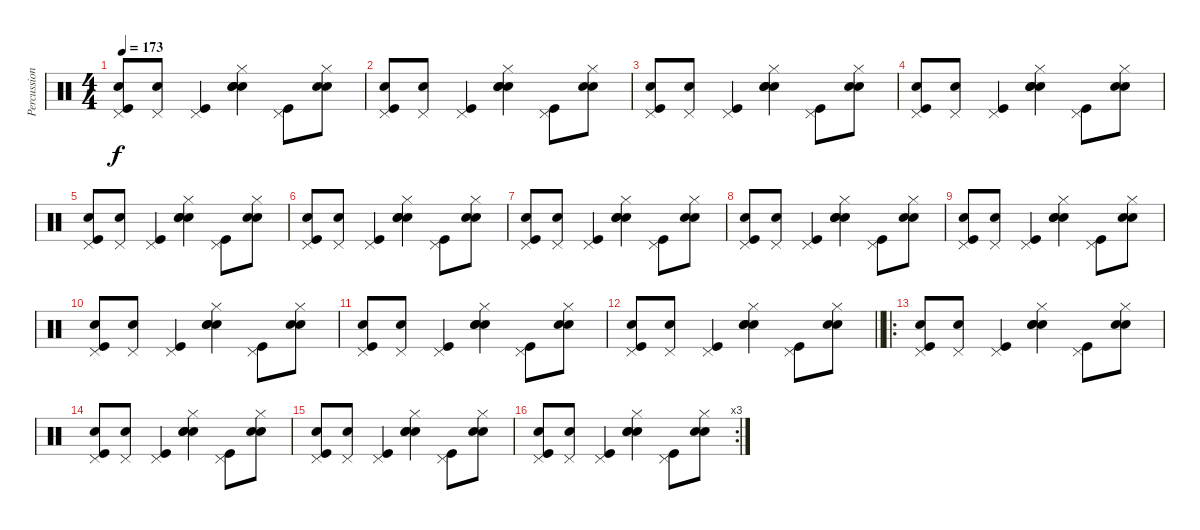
\track ("Percussion" "Percussion") {instrument percussion}
\staff {score}
\articulation defaults
\ts (4 4)
\tempo 173
\clef neutral
\ks c
("Hand Clap (hit)" "Pedal Hi-Hat (hit)" "Kick (hit)").8{dy f} ("Pedal Hi-Hat (hit)" "Electric Snare (hit)").8 ("Pedal Hi-Hat (hit)" "Kick (hit)").4 ("Hand Clap (hit)" "Hand Clap (hit)" "Hi-Hat (closed)" "Electric Snare (hit)").4 ("Pedal Hi-Hat (hit)" "Kick (hit)").8 ("Hand Clap (hit)" "Hi-Hat (closed)" "Electric Snare (hit)").8 |
("Hand Clap (hit)" "Pedal Hi-Hat (hit)" "Kick (hit)").8 ("Pedal Hi-Hat (hit)" "Electric Snare (hit)").8 ("Pedal Hi-Hat (hit)" "Kick (hit)").4 ("Hand Clap (hit)" "Hand Clap (hit)" "Hi-Hat (closed)" "Electric Snare (hit)").4 ("Pedal Hi-Hat (hit)" "Kick (hit)").8 ("Hand Clap (hit)" "Hi-Hat (closed)" "Electric Snare (hit)").8 |
("Hand Clap (hit)" "Pedal Hi-Hat (hit)" "Kick (hit)").8 ("Pedal Hi-Hat (hit)" "Electric Snare (hit)").8 ("Pedal Hi-Hat (hit)" "Kick (hit)").4 ("Hand Clap (hit)" "Hand Clap (hit)" "Hi-Hat (closed)" "Electric Snare (hit)").4 ("Pedal Hi-Hat (hit)" "Kick (hit)").8 ("Hand Clap (hit)" "Hi-Hat (closed)" "Electric Snare (hit)").8 |
("Hand Clap (hit)" "Pedal Hi-Hat (hit)" "Kick (hit)").8 ("Pedal Hi-Hat (hit)" "Electric Snare (hit)").8 ("Pedal Hi-Hat (hit)" "Kick (hit)").4 ("Hand Clap (hit)" "Hand Clap (hit)" "Hi-Hat (closed)" "Electric Snare (hit)").4 ("Pedal Hi-Hat (hit)" "Kick (hit)").8 ("Hand Clap (hit)" "Hi-Hat (closed)" "Electric Snare (hit)").8 |
("Hand Clap (hit)" "Pedal Hi-Hat (hit)" "Kick (hit)").8 ("Pedal Hi-Hat (hit)" "Electric Snare (hit)").8 ("Pedal Hi-Hat (hit)" "Kick (hit)").4 ("Hand Clap (hit)" "Hand Clap (hit)" "Hi-Hat (closed)" "Electric Snare (hit)").4 ("Pedal Hi-Hat (hit)" "Kick (hit)").8 ("Hand Clap (hit)" "Hi-Hat (closed)" "Electric Snare (hit)").8 |
("Hand Clap (hit)" "Pedal Hi-Hat (hit)" "Kick (hit)").8 ("Pedal Hi-Hat (hit)" "Electric Snare (hit)").8 ("Pedal Hi-Hat (hit)" "Kick (hit)").4 ("Hand Clap (hit)" "Hand Clap (hit)" "Hi-Hat (closed)" "Electric Snare (hit)").4 ("Pedal Hi-Hat (hit)" "Kick (hit)").8 ("Hand Clap (hit)" "Hi-Hat (closed)" "Electric Snare (hit)").8 |
("Hand Clap (hit)" "Pedal Hi-Hat (hit)" "Kick (hit)").8 ("Pedal Hi-Hat (hit)" "Electric Snare (hit)").8 ("Pedal Hi-Hat (hit)" "Kick (hit)").4 ("Hand Clap (hit)" "Hand Clap (hit)" "Hi-Hat (closed)" "Electric Snare (hit)").4 ("Pedal Hi-Hat (hit)" "Kick (hit)").8 ("Hand Clap (hit)" "Hi-Hat (closed)" "Electric Snare (hit)").8 |
("Hand Clap (hit)" "Pedal Hi-Hat (hit)" "Kick (hit)").8 ("Pedal Hi-Hat (hit)" "Electric Snare (hit)").8 ("Pedal Hi-Hat (hit)" "Kick (hit)").4 ("Hand Clap (hit)" "Hand Clap (hit)" "Hi-Hat (closed)" "Electric Snare (hit)").4 ("Pedal Hi-Hat (hit)" "Kick (hit)").8 ("Hand Clap (hit)" "Hi-Hat (closed)" "Electric Snare (hit)").8 |
("Hand Clap (hit)" "Pedal Hi-Hat (hit)" "Kick (hit)").8 ("Pedal Hi-Hat (hit)" "Electric Snare (hit)").8 ("Pedal Hi-Hat (hit)" "Kick (hit)").4 ("Hand Clap (hit)" "Hand Clap (hit)" "Hi-Hat (closed)" "Electric Snare (hit)").4 ("Pedal Hi-Hat (hit)" "Kick (hit)").8 ("Hand Clap (hit)" "Hi-Hat (closed)" "Electric Snare (hit)").8 |
("Hand Clap (hit)" "Pedal Hi-Hat (hit)" "Kick (hit)").8 ("Pedal Hi-Hat (hit)" "Electric Snare (hit)").8 ("Pedal Hi-Hat (hit)" "Kick (hit)").4 ("Hand Clap (hit)" "Hand Clap (hit)" "Hi-Hat (closed)" "Electric Snare (hit)").4 ("Pedal Hi-Hat (hit)" "Kick (hit)").8 ("Hand Clap (hit)" "Hi-Hat (closed)" "Electric Snare (hit)").8 |
("Hand Clap (hit)" "Pedal Hi-Hat (hit)" "Kick (hit)").8 ("Pedal Hi-Hat (hit)" "Electric Snare (hit)").8 ("Pedal Hi-Hat (hit)" "Kick (hit)").4 ("Hand Clap (hit)" "Hand Clap (hit)" "Hi-Hat (closed)" "Electric Snare (hit)").4 ("Pedal Hi-Hat (hit)" "Kick (hit)").8 ("Hand Clap (hit)" "Hi-Hat (closed)" "Electric Snare (hit)").8 |
\barLineRight lightlight
("Hand Clap (hit)" "Pedal Hi-Hat (hit)" "Kick (hit)").8 ("Pedal Hi-Hat (hit)" "Electric Snare (hit)").8 ("Pedal Hi-Hat (hit)" "Kick (hit)").4 ("Hand Clap (hit)" "Hand Clap (hit)" "Hi-Hat (closed)" "Electric Snare (hit)").4 ("Pedal Hi-Hat (hit)" "Kick (hit)").8 ("Hand Clap (hit)" "Hi-Hat (closed)" "Electric Snare (hit)").8 |
\ro
("Hand Clap (hit)" "Pedal Hi-Hat (hit)" "Kick (hit)").8 ("Pedal Hi-Hat (hit)" "Electric Snare (hit)").8 ("Pedal Hi-Hat (hit)" "Kick (hit)").4 ("Hand Clap (hit)" "Hand Clap (hit)" "Hi-Hat (closed)" "Electric Snare (hit)").4 ("Pedal Hi-Hat (hit)" "Kick (hit)").8 ("Hand Clap (hit)" "Hi-Hat (closed)" "Electric Snare (hit)").8 |
("Hand Clap (hit)" "Pedal Hi-Hat (hit)" "Kick (hit)").8 ("Pedal Hi-Hat (hit)" "Electric Snare (hit)").8 ("Pedal Hi-Hat (hit)" "Kick (hit)").4 ("Hand Clap (hit)" "Hand Clap (hit)" "Hi-Hat (closed)" "Electric Snare (hit)").4 ("Pedal Hi-Hat (hit)" "Kick (hit)").8 ("Hand Clap (hit)" "Hi-Hat (closed)" "Electric Snare (hit)").8 |
("Hand Clap (hit)" "Pedal Hi-Hat (hit)" "Kick (hit)").8 ("Pedal Hi-Hat (hit)" "Electric Snare (hit)").8 ("Pedal Hi-Hat (hit)" "Kick (hit)").4 ("Hand Clap (hit)" "Hand Clap (hit)" "Hi-Hat (closed)" "Electric Snare (hit)").4 ("Pedal Hi-Hat (hit)" "Kick (hit)").8 ("Hand Clap (hit)" "Hi-Hat (closed)" "Electric Snare (hit)").8 |
\rc 3
("Hand Clap (hit)" "Pedal Hi-Hat (hit)" "Kick (hit)").8 ("Pedal Hi-Hat (hit)" "Electric Snare (hit)").8 ("Pedal Hi-Hat (hit)" "Kick (hit)").4 ("Hand Clap (hit)" "Hand Clap (hit)" "Hi-Hat (closed)" "Electric Snare (hit)").4 ("Pedal Hi-Hat (hit)" "Kick (hit)").8 ("Hand Clap (hit)" "Hi-Hat (closed)" "Electric Snare (hit)").8
